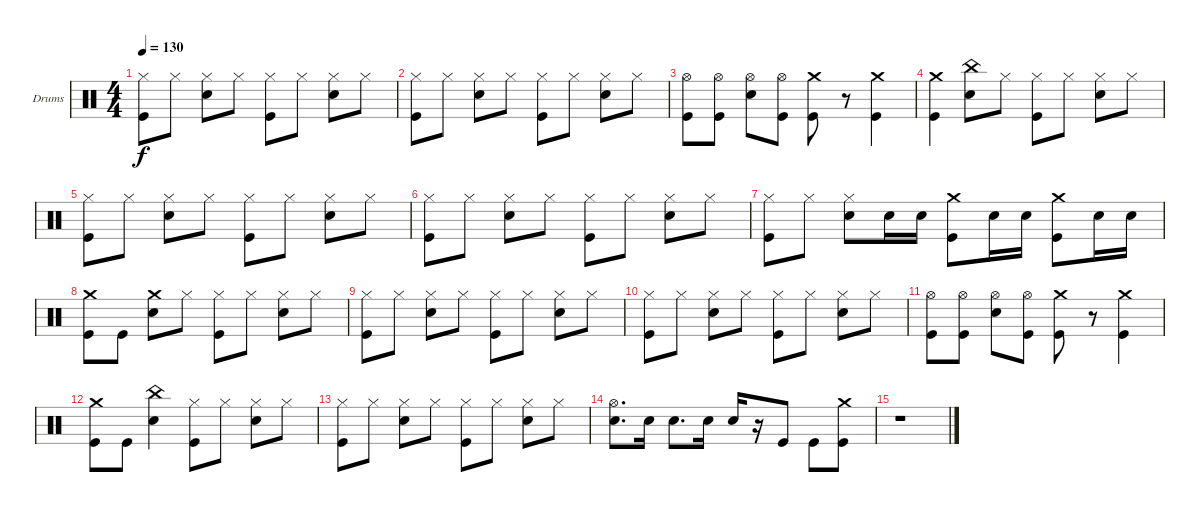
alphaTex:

\defaultSystemsLayout 4
\bracketExtendMode groupsimilarinstruments
\firstSystemTrackNameOrientation horizontal
\otherSystemsTrackNameOrientation horizontal
\track ("Stefan Kaufmann" "Drums") {instrument percussion}
\staff {score}
\articulation defaults
\ts (4 4)
\tempo 130
\clef neutral
\ks c
("Hi-Hat (closed)" "Kick (hit)").8{dy f} "Hi-Hat (closed)".8 ("Hi-Hat (closed)" "Snare (hit) 2").8 "Hi-Hat (closed)".8 ("Hi-Hat (closed)" "Kick (hit)").8 "Hi-Hat (closed)".8 ("Hi-Hat (closed)" "Snare (hit) 2").8 "Hi-Hat (closed)".8 |
("Hi-Hat (closed)" "Kick (hit)").8 "Hi-Hat (closed)".8 ("Hi-Hat (closed)" "Snare (hit) 2").8 "Hi-Hat (closed)".8 ("Hi-Hat (closed)" "Kick (hit)").8 "Hi-Hat (closed)".8 ("Hi-Hat (closed)" "Snare (hit) 2").8 "Hi-Hat (closed)".8 |
("Hi-Hat (open)" "Kick (hit)").8 ("Hi-Hat (open)" "Kick (hit)").8 ("Hi-Hat (open)" "Snare (hit) 2").8 ("Hi-Hat (open)" "Kick (hit)").8 ("Crash medium (hit)" "Kick (hit)").8 r.8 ("Crash medium (hit)" "Kick (hit)").4 |
("Crash medium (hit)" "Kick (hit)").4 ("China (hit)" "Snare (hit) 2").8 "Hi-Hat (closed)".8 ("Hi-Hat (closed)" "Kick (hit)").8 "Hi-Hat (closed)".8 ("Hi-Hat (closed)" "Snare (hit) 2").8 "Hi-Hat (closed)".8 |
("Hi-Hat (closed)" "Kick (hit)").8 "Hi-Hat (closed)".8 ("Hi-Hat (closed)" "Snare (hit) 2").8 "Hi-Hat (closed)".8 ("Hi-Hat (closed)" "Kick (hit)").8 "Hi-Hat (closed)".8 ("Hi-Hat (closed)" "Snare (hit) 2").8 "Hi-Hat (closed)".8 |
("Hi-Hat (closed)" "Kick (hit)").8 "Hi-Hat (closed)".8 ("Hi-Hat (closed)" "Snare (hit) 2").8 "Hi-Hat (closed)".8 ("Hi-Hat (closed)" "Kick (hit)").8 "Hi-Hat (closed)".8 ("Hi-Hat (closed)" "Snare (hit) 2").8 "Hi-Hat (closed)".8 |
("Hi-Hat (closed)" "Kick (hit)").8 "Hi-Hat (closed)".8 ("Hi-Hat (closed)" "Snare (hit) 2").8 "Snare (hit) 2".16 "Snare (hit) 2".16 ("Crash medium (hit)" "Kick (hit)").8 "Snare (hit) 2".16 "Snare (hit) 2".16 ("Crash medium (hit)" "Kick (hit)").8 "Snare (hit) 2".16 "Snare (hit) 2".16 |
("Crash medium (hit)" "Kick (hit)").8 "Kick (hit)".8 ("Crash medium (hit)" "Snare (hit) 2").8 "Hi-Hat (closed)".8 ("Hi-Hat (closed)" "Kick (hit)").8 "Hi-Hat (closed)".8 ("Hi-Hat (closed)" "Snare (hit) 2").8 "Hi-Hat (closed)".8 |
("Hi-Hat (closed)" "Kick (hit)").8 "Hi-Hat (closed)".8 ("Hi-Hat (closed)" "Snare (hit) 2").8 "Hi-Hat (closed)".8 ("Hi-Hat (closed)" "Kick (hit)").8 "Hi-Hat (closed)".8 ("Hi-Hat (closed)" "Snare (hit) 2").8 "Hi-Hat (closed)".8 |
("Hi-Hat (closed)" "Kick (hit)").8 "Hi-Hat (closed)".8 ("Hi-Hat (closed)" "Snare (hit) 2").8 "Hi-Hat (closed)".8 ("Hi-Hat (closed)" "Kick (hit)").8 "Hi-Hat (closed)".8 ("Hi-Hat (closed)" "Snare (hit) 2").8 "Hi-Hat (closed)".8 |
("Hi-Hat (open)" "Kick (hit)").8 ("Hi-Hat (open)" "Kick (hit)").8 ("Hi-Hat (open)" "Snare (hit) 2").8 ("Hi-Hat (open)" "Kick (hit)").8 ("Crash medium (hit)" "Kick (hit)").8 r.8 ("Crash medium (hit)" "Kick (hit)").4 |
("Crash medium (hit)" "Kick (hit)").8 "Kick (hit)".8 ("China (hit)" "Snare (hit) 2").4 ("Hi-Hat (closed)" "Kick (hit)").8 "Hi-Hat (closed)".8 ("Hi-Hat (closed)" "Snare (hit) 2").8 "Hi-Hat (closed)".8 |
("Hi-Hat (closed)" "Kick (hit)").8 "Hi-Hat (closed)".8 ("Hi-Hat (closed)" "Snare (hit) 2").8 "Hi-Hat (closed)".8 ("Hi-Hat (closed)" "Kick (hit)").8 "Hi-Hat (closed)".8 ("Hi-Hat (closed)" "Snare (hit) 2").8 "Hi-Hat (closed)".8 |
("Hi-Hat (open)" "Snare (hit) 2").8{d} "Snare (hit) 2".16 "Snare (hit) 2".8{d} "Snare (hit) 2".16 "Snare (hit) 2".16 r.16 "Kick (hit)".8 "Kick (hit)".8 ("Crash medium (hit)" "Kick (hit)").8 |
r.1
